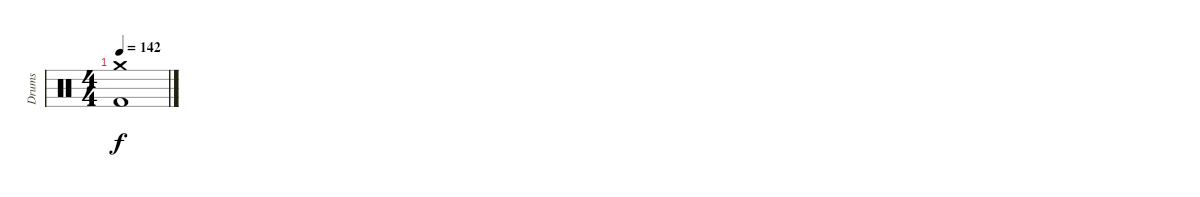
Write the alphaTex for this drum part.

\track ("Drums" "Drums") {instrument percussion}
\staff {score}
\articulation defaults
\ts (4 4)
\tempo 142
\clef neutral
\ks c
("Crash medium (hit)" "Kick (hit) 2").1{dy f}
